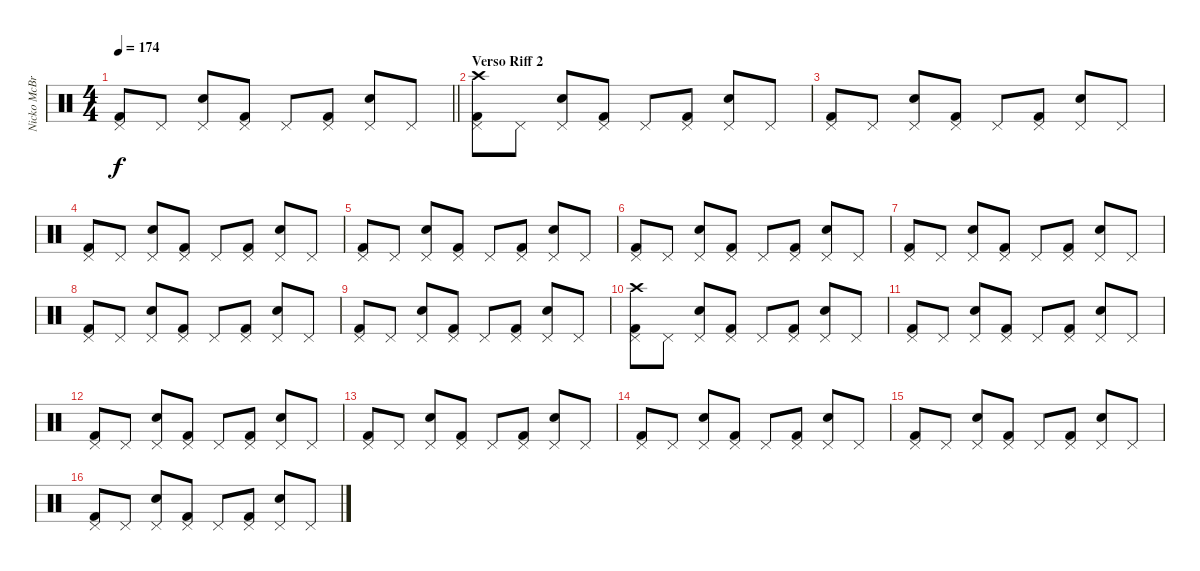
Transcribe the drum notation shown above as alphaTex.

\track ("Nicko McBrain" "Nicko McBr") {instrument percussion}
\staff {score}
\articulation defaults
\ts (4 4)
\tempo 174
\clef neutral
\barLineRight lightlight
\ks c
("Kick (hit) 2" "Pedal Hi-Hat (hit)").8{dy f} "Pedal Hi-Hat (hit)".8 ("Snare (hit) 2" "Pedal Hi-Hat (hit)").8 ("Kick (hit) 2" "Pedal Hi-Hat (hit)").8 "Pedal Hi-Hat (hit)".8 ("Kick (hit) 2" "Pedal Hi-Hat (hit)").8 ("Snare (hit) 2" "Pedal Hi-Hat (hit)").8 "Pedal Hi-Hat (hit)".8 |
\section ("" "Verso Riff 2")
("Kick (hit) 2" "Pedal Hi-Hat (hit)" "Crash high (hit)").8 "Pedal Hi-Hat (hit)".8 ("Snare (hit) 2" "Pedal Hi-Hat (hit)").8 ("Kick (hit) 2" "Pedal Hi-Hat (hit)").8 "Pedal Hi-Hat (hit)".8 ("Kick (hit) 2" "Pedal Hi-Hat (hit)").8 ("Snare (hit) 2" "Pedal Hi-Hat (hit)").8 "Pedal Hi-Hat (hit)".8 |
("Kick (hit) 2" "Pedal Hi-Hat (hit)").8 "Pedal Hi-Hat (hit)".8 ("Snare (hit) 2" "Pedal Hi-Hat (hit)").8 ("Kick (hit) 2" "Pedal Hi-Hat (hit)").8 "Pedal Hi-Hat (hit)".8 ("Kick (hit) 2" "Pedal Hi-Hat (hit)").8 ("Snare (hit) 2" "Pedal Hi-Hat (hit)").8 "Pedal Hi-Hat (hit)".8 |
("Kick (hit) 2" "Pedal Hi-Hat (hit)").8 "Pedal Hi-Hat (hit)".8 ("Snare (hit) 2" "Pedal Hi-Hat (hit)").8 ("Kick (hit) 2" "Pedal Hi-Hat (hit)").8 "Pedal Hi-Hat (hit)".8 ("Kick (hit) 2" "Pedal Hi-Hat (hit)").8 ("Snare (hit) 2" "Pedal Hi-Hat (hit)").8 "Pedal Hi-Hat (hit)".8 |
("Kick (hit) 2" "Pedal Hi-Hat (hit)").8 "Pedal Hi-Hat (hit)".8 ("Snare (hit) 2" "Pedal Hi-Hat (hit)").8 ("Kick (hit) 2" "Pedal Hi-Hat (hit)").8 "Pedal Hi-Hat (hit)".8 ("Kick (hit) 2" "Pedal Hi-Hat (hit)").8 ("Snare (hit) 2" "Pedal Hi-Hat (hit)").8 "Pedal Hi-Hat (hit)".8 |
("Kick (hit) 2" "Pedal Hi-Hat (hit)").8 "Pedal Hi-Hat (hit)".8 ("Snare (hit) 2" "Pedal Hi-Hat (hit)").8 ("Kick (hit) 2" "Pedal Hi-Hat (hit)").8 "Pedal Hi-Hat (hit)".8 ("Kick (hit) 2" "Pedal Hi-Hat (hit)").8 ("Snare (hit) 2" "Pedal Hi-Hat (hit)").8 "Pedal Hi-Hat (hit)".8 |
("Kick (hit) 2" "Pedal Hi-Hat (hit)").8 "Pedal Hi-Hat (hit)".8 ("Snare (hit) 2" "Pedal Hi-Hat (hit)").8 ("Kick (hit) 2" "Pedal Hi-Hat (hit)").8 "Pedal Hi-Hat (hit)".8 ("Kick (hit) 2" "Pedal Hi-Hat (hit)").8 ("Snare (hit) 2" "Pedal Hi-Hat (hit)").8 "Pedal Hi-Hat (hit)".8 |
("Kick (hit) 2" "Pedal Hi-Hat (hit)").8 "Pedal Hi-Hat (hit)".8 ("Snare (hit) 2" "Pedal Hi-Hat (hit)").8 ("Kick (hit) 2" "Pedal Hi-Hat (hit)").8 "Pedal Hi-Hat (hit)".8 ("Kick (hit) 2" "Pedal Hi-Hat (hit)").8 ("Snare (hit) 2" "Pedal Hi-Hat (hit)").8 "Pedal Hi-Hat (hit)".8 |
("Kick (hit) 2" "Pedal Hi-Hat (hit)").8 "Pedal Hi-Hat (hit)".8 ("Snare (hit) 2" "Pedal Hi-Hat (hit)").8 ("Kick (hit) 2" "Pedal Hi-Hat (hit)").8 "Pedal Hi-Hat (hit)".8 ("Kick (hit) 2" "Pedal Hi-Hat (hit)").8 ("Snare (hit) 2" "Pedal Hi-Hat (hit)").8 "Pedal Hi-Hat (hit)".8 |
("Kick (hit) 2" "Pedal Hi-Hat (hit)" "Crash high (hit)").8 "Pedal Hi-Hat (hit)".8 ("Snare (hit) 2" "Pedal Hi-Hat (hit)").8 ("Kick (hit) 2" "Pedal Hi-Hat (hit)").8 "Pedal Hi-Hat (hit)".8 ("Kick (hit) 2" "Pedal Hi-Hat (hit)").8 ("Snare (hit) 2" "Pedal Hi-Hat (hit)").8 "Pedal Hi-Hat (hit)".8 |
("Kick (hit) 2" "Pedal Hi-Hat (hit)").8 "Pedal Hi-Hat (hit)".8 ("Snare (hit) 2" "Pedal Hi-Hat (hit)").8 ("Kick (hit) 2" "Pedal Hi-Hat (hit)").8 "Pedal Hi-Hat (hit)".8 ("Kick (hit) 2" "Pedal Hi-Hat (hit)").8 ("Snare (hit) 2" "Pedal Hi-Hat (hit)").8 "Pedal Hi-Hat (hit)".8 |
("Kick (hit) 2" "Pedal Hi-Hat (hit)").8 "Pedal Hi-Hat (hit)".8 ("Snare (hit) 2" "Pedal Hi-Hat (hit)").8 ("Kick (hit) 2" "Pedal Hi-Hat (hit)").8 "Pedal Hi-Hat (hit)".8 ("Kick (hit) 2" "Pedal Hi-Hat (hit)").8 ("Snare (hit) 2" "Pedal Hi-Hat (hit)").8 "Pedal Hi-Hat (hit)".8 |
("Kick (hit) 2" "Pedal Hi-Hat (hit)").8 "Pedal Hi-Hat (hit)".8 ("Snare (hit) 2" "Pedal Hi-Hat (hit)").8 ("Kick (hit) 2" "Pedal Hi-Hat (hit)").8 "Pedal Hi-Hat (hit)".8 ("Kick (hit) 2" "Pedal Hi-Hat (hit)").8 ("Snare (hit) 2" "Pedal Hi-Hat (hit)").8 "Pedal Hi-Hat (hit)".8 |
("Kick (hit) 2" "Pedal Hi-Hat (hit)").8 "Pedal Hi-Hat (hit)".8 ("Snare (hit) 2" "Pedal Hi-Hat (hit)").8 ("Kick (hit) 2" "Pedal Hi-Hat (hit)").8 "Pedal Hi-Hat (hit)".8 ("Kick (hit) 2" "Pedal Hi-Hat (hit)").8 ("Snare (hit) 2" "Pedal Hi-Hat (hit)").8 "Pedal Hi-Hat (hit)".8 |
("Kick (hit) 2" "Pedal Hi-Hat (hit)").8 "Pedal Hi-Hat (hit)".8 ("Snare (hit) 2" "Pedal Hi-Hat (hit)").8 ("Kick (hit) 2" "Pedal Hi-Hat (hit)").8 "Pedal Hi-Hat (hit)".8 ("Kick (hit) 2" "Pedal Hi-Hat (hit)").8 ("Snare (hit) 2" "Pedal Hi-Hat (hit)").8 "Pedal Hi-Hat (hit)".8 |
("Kick (hit) 2" "Pedal Hi-Hat (hit)").8 "Pedal Hi-Hat (hit)".8 ("Snare (hit) 2" "Pedal Hi-Hat (hit)").8 ("Kick (hit) 2" "Pedal Hi-Hat (hit)").8 "Pedal Hi-Hat (hit)".8 ("Kick (hit) 2" "Pedal Hi-Hat (hit)").8 ("Snare (hit) 2" "Pedal Hi-Hat (hit)").8 "Pedal Hi-Hat (hit)".8
